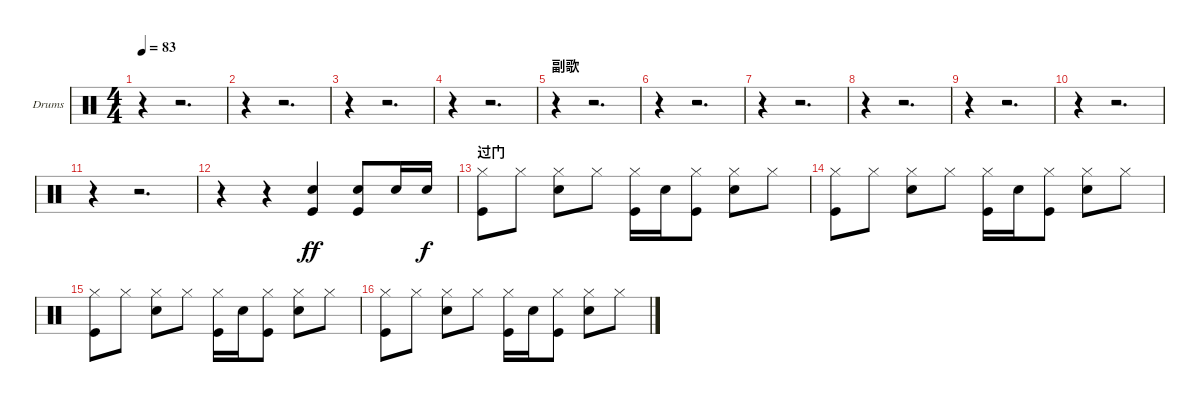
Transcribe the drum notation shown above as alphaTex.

\bracketExtendMode groupsimilarinstruments
\firstSystemTrackNameOrientation horizontal
\otherSystemsTrackNameOrientation horizontal
\track ("Drumkit" "Drums") {instrument percussion}
\staff {score}
\articulation defaults
\ts (4 4)
\tempo 83
\clef neutral
\ks c
r.4{dy ff} r.2{d} |
r.4 r.2{d} |
r.4 r.2{d} |
r.4 r.2{d} |
\section ("" "副歌")
r.4 r.2{d} |
r.4 r.2{d} |
r.4 r.2{d} |
r.4 r.2{d} |
r.4 r.2{d} |
r.4 r.2{d} |
r.4 r.2{d} |
r.4 r.4 ("Snare (hit) 2" "Kick (hit)").4 ("Snare (hit) 2" "Kick (hit)").8 "Snare (hit) 2".16 "Snare (hit) 2".16{dy f} |
\section ("" "过门")
("Kick (hit)" "Hi-Hat (closed)").8 "Hi-Hat (closed)".8 ("Snare (hit) 2" "Hi-Hat (closed)").8 "Hi-Hat (closed)".8 ("Kick (hit)" "Hi-Hat (closed)").16 "Snare (hit) 2".16 ("Kick (hit)" "Hi-Hat (closed)").8 ("Snare (hit) 2" "Hi-Hat (closed)").8 "Hi-Hat (closed)".8 |
("Kick (hit)" "Hi-Hat (closed)").8 "Hi-Hat (closed)".8 ("Snare (hit) 2" "Hi-Hat (closed)").8 "Hi-Hat (closed)".8 ("Kick (hit)" "Hi-Hat (closed)").16 "Snare (hit) 2".16 ("Kick (hit)" "Hi-Hat (closed)").8 ("Snare (hit) 2" "Hi-Hat (closed)").8 "Hi-Hat (closed)".8 |
("Kick (hit)" "Hi-Hat (closed)").8 "Hi-Hat (closed)".8 ("Snare (hit) 2" "Hi-Hat (closed)").8 "Hi-Hat (closed)".8 ("Kick (hit)" "Hi-Hat (closed)").16 "Snare (hit) 2".16 ("Kick (hit)" "Hi-Hat (closed)").8 ("Snare (hit) 2" "Hi-Hat (closed)").8 "Hi-Hat (closed)".8 |
("Kick (hit)" "Hi-Hat (closed)").8 "Hi-Hat (closed)".8 ("Snare (hit) 2" "Hi-Hat (closed)").8 "Hi-Hat (closed)".8 ("Kick (hit)" "Hi-Hat (closed)").16 "Snare (hit) 2".16 ("Kick (hit)" "Hi-Hat (closed)").8 ("Snare (hit) 2" "Hi-Hat (closed)").8 "Hi-Hat (closed)".8
